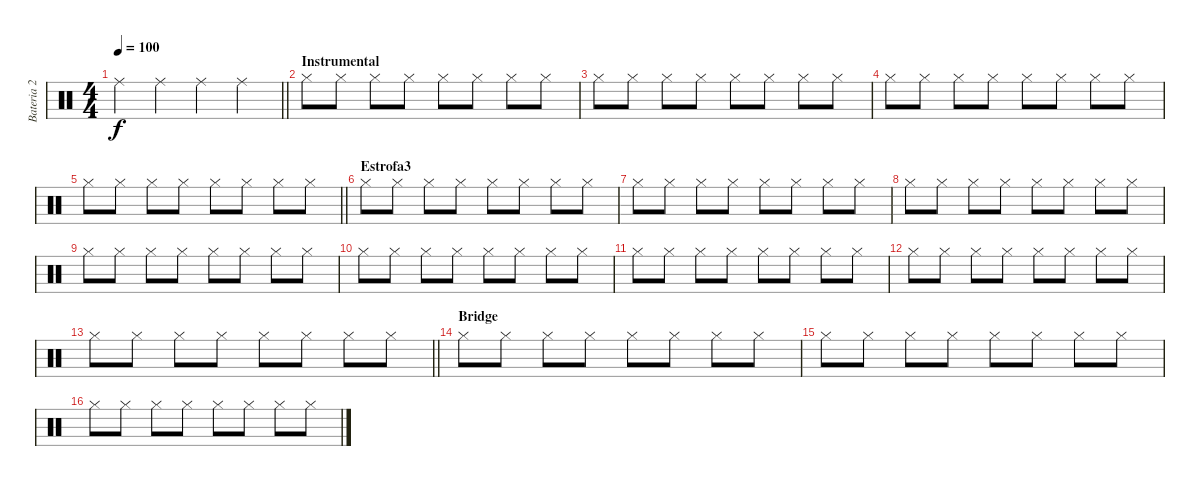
\track ("Bateria 2" "Bateria 2") {instrument percussion}
\staff {score}
\articulation defaults
\ts (4 4)
\tempo 100
\clef neutral
\barLineRight lightlight
\ks c "Ride (middle)".4{dy f} "Ride (middle)".4 "Ride (middle)".4 "Ride (middle)".4
|
\section ("" "Instrumental")
"Hi-Hat (closed)".8 "Hi-Hat (closed)".8 "Hi-Hat (closed)".8 "Hi-Hat (closed)".8 "Hi-Hat (closed)".8 "Hi-Hat (closed)".8 "Hi-Hat (closed)".8 "Hi-Hat (closed)".8 |
"Hi-Hat (closed)".8 "Hi-Hat (closed)".8 "Hi-Hat (closed)".8 "Hi-Hat (closed)".8 "Hi-Hat (closed)".8 "Hi-Hat (closed)".8 "Hi-Hat (closed)".8 "Hi-Hat (closed)".8 |
"Hi-Hat (closed)".8 "Hi-Hat (closed)".8 "Hi-Hat (closed)".8 "Hi-Hat (closed)".8 "Hi-Hat (closed)".8 "Hi-Hat (closed)".8 "Hi-Hat (closed)".8 "Hi-Hat (closed)".8 |
\barLineRight lightlight "Hi-Hat (closed)".8 "Hi-Hat (closed)".8 "Hi-Hat (closed)".8 "Hi-Hat (closed)".8 "Hi-Hat (closed)".8 "Hi-Hat (closed)".8 "Hi-Hat (closed)".8 "Hi-Hat (closed)".8
|
\section ("" "Estrofa3")
"Hi-Hat (closed)".8 "Hi-Hat (closed)".8 "Hi-Hat (closed)".8 "Hi-Hat (closed)".8 "Hi-Hat (closed)".8 "Hi-Hat (closed)".8 "Hi-Hat (closed)".8 "Hi-Hat (closed)".8 |
"Hi-Hat (closed)".8 "Hi-Hat (closed)".8 "Hi-Hat (closed)".8 "Hi-Hat (closed)".8 "Hi-Hat (closed)".8 "Hi-Hat (closed)".8 "Hi-Hat (closed)".8 "Hi-Hat (closed)".8 |
"Hi-Hat (closed)".8 "Hi-Hat (closed)".8 "Hi-Hat (closed)".8 "Hi-Hat (closed)".8 "Hi-Hat (closed)".8 "Hi-Hat (closed)".8 "Hi-Hat (closed)".8 "Hi-Hat (closed)".8 |
"Hi-Hat (closed)".8 "Hi-Hat (closed)".8 "Hi-Hat (closed)".8 "Hi-Hat (closed)".8 "Hi-Hat (closed)".8 "Hi-Hat (closed)".8 "Hi-Hat (closed)".8 "Hi-Hat (closed)".8 |
"Hi-Hat (closed)".8 "Hi-Hat (closed)".8 "Hi-Hat (closed)".8 "Hi-Hat (closed)".8 "Hi-Hat (closed)".8 "Hi-Hat (closed)".8 "Hi-Hat (closed)".8 "Hi-Hat (closed)".8 |
"Hi-Hat (closed)".8 "Hi-Hat (closed)".8 "Hi-Hat (closed)".8 "Hi-Hat (closed)".8 "Hi-Hat (closed)".8 "Hi-Hat (closed)".8 "Hi-Hat (closed)".8 "Hi-Hat (closed)".8 |
"Hi-Hat (closed)".8 "Hi-Hat (closed)".8 "Hi-Hat (closed)".8 "Hi-Hat (closed)".8 "Hi-Hat (closed)".8 "Hi-Hat (closed)".8 "Hi-Hat (closed)".8 "Hi-Hat (closed)".8 |
\barLineRight lightlight "Hi-Hat (closed)".8 "Hi-Hat (closed)".8 "Hi-Hat (closed)".8 "Hi-Hat (closed)".8 "Hi-Hat (closed)".8 "Hi-Hat (closed)".8 "Hi-Hat (closed)".8 "Hi-Hat (closed)".8
|
\section ("" "Bridge")
"Hi-Hat (closed)".8 "Hi-Hat (closed)".8 "Hi-Hat (closed)".8 "Hi-Hat (closed)".8 "Hi-Hat (closed)".8 "Hi-Hat (closed)".8 "Hi-Hat (closed)".8 "Hi-Hat (closed)".8 |
"Hi-Hat (closed)".8 "Hi-Hat (closed)".8 "Hi-Hat (closed)".8 "Hi-Hat (closed)".8 "Hi-Hat (closed)".8 "Hi-Hat (closed)".8 "Hi-Hat (closed)".8 "Hi-Hat (closed)".8 |
"Hi-Hat (closed)".8 "Hi-Hat (closed)".8 "Hi-Hat (closed)".8 "Hi-Hat (closed)".8 "Hi-Hat (closed)".8 "Hi-Hat (closed)".8 "Hi-Hat (closed)".8 "Hi-Hat (closed)".8
